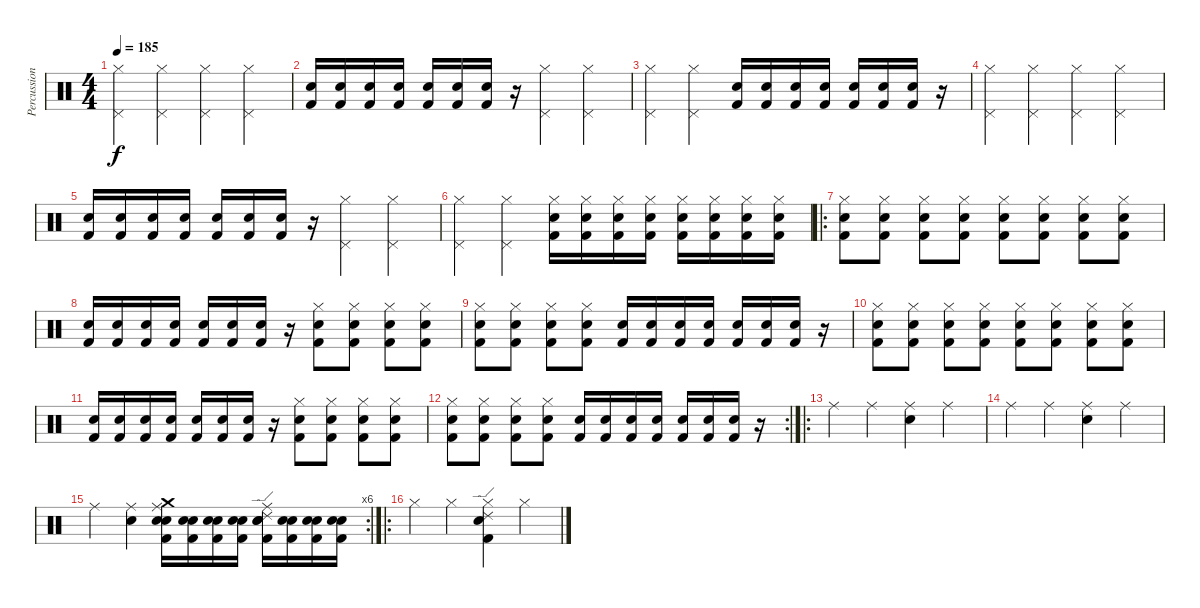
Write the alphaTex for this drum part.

\track ("Percussions" "Percussion") {instrument percussion}
\staff {score}
\articulation defaults
\ts (4 4)
\tempo 185
\clef neutral
\ks c
("Hi-Hat (closed)" "Pedal Hi-Hat (hit)").4{dy f} ("Hi-Hat (closed)" "Pedal Hi-Hat (hit)").4 ("Hi-Hat (closed)" "Pedal Hi-Hat (hit)").4 ("Hi-Hat (closed)" "Pedal Hi-Hat (hit)").4 |
("Electric Snare (hit)" "Kick (hit) 2").16 ("Electric Snare (hit)" "Kick (hit) 2").16 ("Electric Snare (hit)" "Kick (hit) 2").16 ("Electric Snare (hit)" "Kick (hit) 2").16 ("Electric Snare (hit)" "Kick (hit) 2").16 ("Electric Snare (hit)" "Kick (hit) 2").16 ("Electric Snare (hit)" "Kick (hit) 2").16 r.16 ("Hi-Hat (closed)" "Pedal Hi-Hat (hit)").4 ("Hi-Hat (closed)" "Pedal Hi-Hat (hit)").4 |
("Hi-Hat (closed)" "Pedal Hi-Hat (hit)").4 ("Hi-Hat (closed)" "Pedal Hi-Hat (hit)").4 ("Electric Snare (hit)" "Kick (hit) 2").16 ("Electric Snare (hit)" "Kick (hit) 2").16 ("Electric Snare (hit)" "Kick (hit) 2").16 ("Electric Snare (hit)" "Kick (hit) 2").16 ("Electric Snare (hit)" "Kick (hit) 2").16 ("Electric Snare (hit)" "Kick (hit) 2").16 ("Electric Snare (hit)" "Kick (hit) 2").16 r.16 |
("Hi-Hat (closed)" "Pedal Hi-Hat (hit)").4 ("Hi-Hat (closed)" "Pedal Hi-Hat (hit)").4 ("Hi-Hat (closed)" "Pedal Hi-Hat (hit)").4 ("Hi-Hat (closed)" "Pedal Hi-Hat (hit)").4 |
("Electric Snare (hit)" "Kick (hit) 2").16 ("Electric Snare (hit)" "Kick (hit) 2").16 ("Electric Snare (hit)" "Kick (hit) 2").16 ("Electric Snare (hit)" "Kick (hit) 2").16 ("Electric Snare (hit)" "Kick (hit) 2").16 ("Electric Snare (hit)" "Kick (hit) 2").16 ("Electric Snare (hit)" "Kick (hit) 2").16 r.16 ("Hi-Hat (closed)" "Pedal Hi-Hat (hit)").4 ("Hi-Hat (closed)" "Pedal Hi-Hat (hit)").4 |
("Hi-Hat (closed)" "Pedal Hi-Hat (hit)").4 ("Hi-Hat (closed)" "Pedal Hi-Hat (hit)").4 ("Hi-Hat (closed)" "Electric Snare (hit)" "Kick (hit) 2").16 ("Hi-Hat (closed)" "Snare (hit) 2" "Kick (hit) 2").16 ("Hi-Hat (closed)" "Electric Snare (hit)" "Kick (hit) 2").16 ("Hi-Hat (closed)" "Snare (hit) 2" "Kick (hit) 2").16 ("Hi-Hat (closed)" "Electric Snare (hit)" "Kick (hit) 2").16 ("Hi-Hat (closed)" "Snare (hit) 2" "Kick (hit) 2").16 ("Hi-Hat (closed)" "Electric Snare (hit)" "Kick (hit) 2").16 ("Hi-Hat (closed)" "Snare (hit) 2" "Kick (hit) 2").16 |
\ro
("Hi-Hat (closed)" "Snare (hit) 2" "Kick (hit) 2").8 ("Hi-Hat (closed)" "Snare (hit) 2" "Kick (hit) 2").8 ("Hi-Hat (closed)" "Snare (hit) 2" "Kick (hit) 2").8 ("Hi-Hat (closed)" "Snare (hit) 2" "Kick (hit) 2").8 ("Hi-Hat (closed)" "Snare (hit) 2" "Kick (hit) 2").8 ("Hi-Hat (closed)" "Snare (hit) 2" "Kick (hit) 2").8 ("Hi-Hat (closed)" "Snare (hit) 2" "Kick (hit) 2").8 ("Hi-Hat (closed)" "Snare (hit) 2" "Kick (hit) 2").8 |
("Snare (hit) 2" "Kick (hit) 2").16 ("Snare (hit) 2" "Kick (hit) 2").16 ("Snare (hit) 2" "Kick (hit) 2").16 ("Snare (hit) 2" "Kick (hit) 2").16 ("Snare (hit) 2" "Kick (hit) 2").16 ("Snare (hit) 2" "Kick (hit) 2").16 ("Snare (hit) 2" "Kick (hit) 2").16 r.16 ("Hi-Hat (closed)" "Snare (hit) 2" "Kick (hit) 2").8 ("Hi-Hat (closed)" "Snare (hit) 2" "Kick (hit) 2").8 ("Hi-Hat (closed)" "Snare (hit) 2" "Kick (hit) 2").8 ("Hi-Hat (closed)" "Snare (hit) 2" "Kick (hit) 2").8 |
("Hi-Hat (closed)" "Snare (hit) 2" "Kick (hit) 2").8 ("Hi-Hat (closed)" "Snare (hit) 2" "Kick (hit) 2").8 ("Hi-Hat (closed)" "Snare (hit) 2" "Kick (hit) 2").8 ("Hi-Hat (closed)" "Snare (hit) 2" "Kick (hit) 2").8 ("Snare (hit) 2" "Kick (hit) 2").16 ("Snare (hit) 2" "Kick (hit) 2").16 ("Snare (hit) 2" "Kick (hit) 2").16 ("Snare (hit) 2" "Kick (hit) 2").16 ("Snare (hit) 2" "Kick (hit) 2").16 ("Snare (hit) 2" "Kick (hit) 2").16 ("Snare (hit) 2" "Kick (hit) 2").16 r.16 |
("Hi-Hat (closed)" "Snare (hit) 2" "Kick (hit) 2").8 ("Hi-Hat (closed)" "Snare (hit) 2" "Kick (hit) 2").8 ("Hi-Hat (closed)" "Snare (hit) 2" "Kick (hit) 2").8 ("Hi-Hat (closed)" "Snare (hit) 2" "Kick (hit) 2").8 ("Hi-Hat (closed)" "Snare (hit) 2" "Kick (hit) 2").8 ("Hi-Hat (closed)" "Snare (hit) 2" "Kick (hit) 2").8 ("Hi-Hat (closed)" "Snare (hit) 2" "Kick (hit) 2").8 ("Hi-Hat (closed)" "Snare (hit) 2" "Kick (hit) 2").8 |
("Snare (hit) 2" "Kick (hit) 2").16 ("Snare (hit) 2" "Kick (hit) 2").16 ("Snare (hit) 2" "Kick (hit) 2").16 ("Snare (hit) 2" "Kick (hit) 2").16 ("Snare (hit) 2" "Kick (hit) 2").16 ("Snare (hit) 2" "Kick (hit) 2").16 ("Snare (hit) 2" "Kick (hit) 2").16 r.16 ("Hi-Hat (closed)" "Snare (hit) 2" "Kick (hit) 2").8 ("Hi-Hat (closed)" "Snare (hit) 2" "Kick (hit) 2").8 ("Hi-Hat (closed)" "Snare (hit) 2" "Kick (hit) 2").8 ("Hi-Hat (closed)" "Snare (hit) 2" "Kick (hit) 2").8 |
\rc 2
("Hi-Hat (closed)" "Snare (hit) 2" "Kick (hit) 2").8 ("Hi-Hat (closed)" "Snare (hit) 2" "Kick (hit) 2").8 ("Hi-Hat (closed)" "Snare (hit) 2" "Kick (hit) 2").8 ("Hi-Hat (closed)" "Snare (hit) 2" "Kick (hit) 2").8 ("Snare (hit) 2" "Kick (hit) 2").16 ("Snare (hit) 2" "Kick (hit) 2").16 ("Snare (hit) 2" "Kick (hit) 2").16 ("Snare (hit) 2" "Kick (hit) 2").16 ("Snare (hit) 2" "Kick (hit) 2").16 ("Snare (hit) 2" "Kick (hit) 2").16 ("Snare (hit) 2" "Kick (hit) 2").16 r.16 |
\ro "Ride (middle)".4 "Ride (middle)".4
("Ride (middle)" "Electric Snare (hit)").4 "Ride (middle)".4 |
"Ride (middle)".4 "Ride (middle)".4 ("Ride (middle)" "Electric Snare (hit)").4 "Ride (middle)".4 |
\rc 6 "Ride (middle)".4
("Ride (middle)" "Electric Snare (hit)").4 ("Ride (middle)" "Crash medium (hit)" "Kick (hit) 2" "Snare (hit) 2" "Electric Snare (hit)").16 ("Kick (hit) 2" "Snare (hit) 2" "Electric Snare (hit)").16 ("Kick (hit) 2" "Snare (hit) 2" "Electric Snare (hit)").16 ("Kick (hit) 2" "Snare (hit) 2" "Electric Snare (hit)").16 ("Ride (middle)" "Ride (edge) 2" "Kick (hit) 2" "Snare (hit) 2" "Electric Snare (hit)").16 ("Kick (hit) 2" "Snare (hit) 2" "Electric Snare (hit)").16 ("Kick (hit) 2" "Snare (hit) 2" "Electric Snare (hit)").16 ("Kick (hit) 2" "Snare (hit) 2" "Electric Snare (hit)").16 |
\ro "Hi-Hat (closed)".4 "Hi-Hat (closed)".4
("Hi-Hat (closed)" "Ride (edge) 2" "Electric Snare (hit)" "Kick (hit) 2").4 "Hi-Hat (closed)".4
